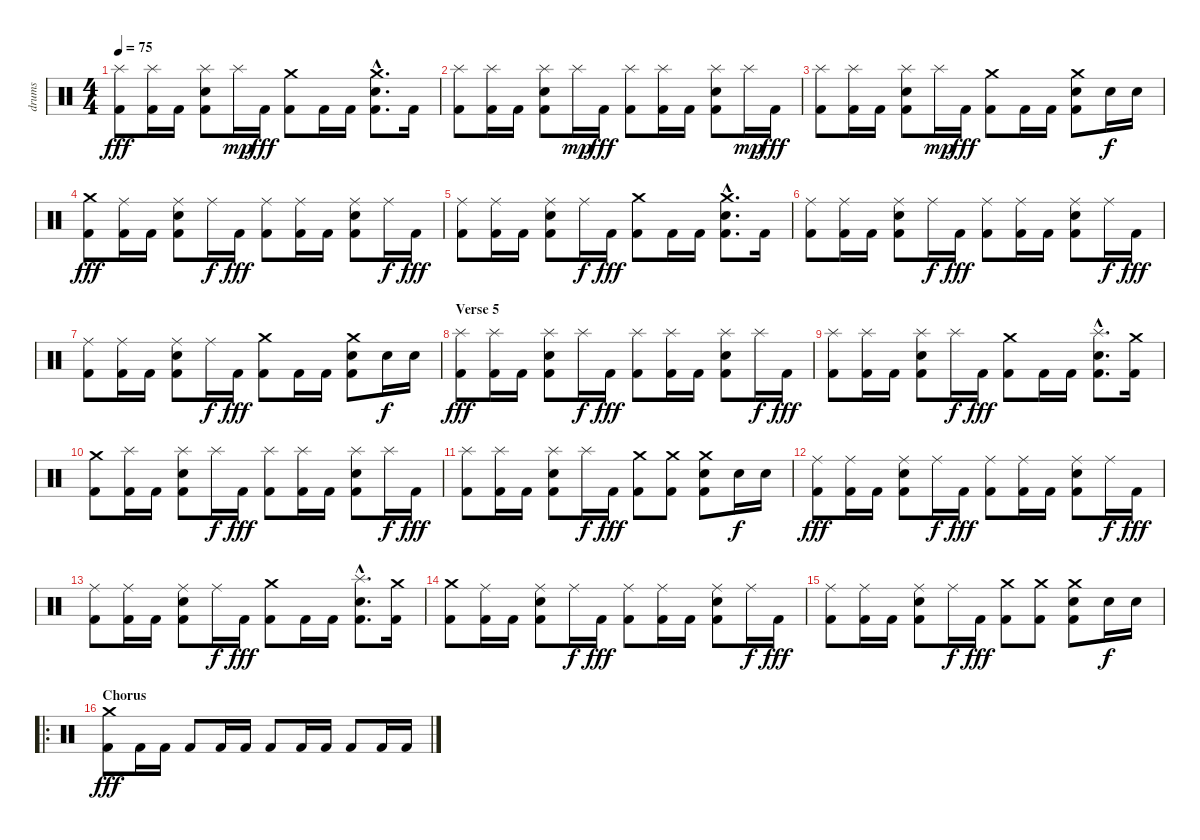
\track ("drums" "drums") {instrument percussion}
\staff {score}
\articulation defaults
\ts (4 4)
\tempo 75
\clef neutral
\ks c
("Splash (hit)" "Kick (hit) 2").8{dy fff} ("Splash (hit)" "Kick (hit) 2").16 "Kick (hit) 2".16 ("Splash (hit)" "Electric Snare (hit)" "Kick (hit) 2").8 "Splash (hit)".16{dy mp} "Kick (hit) 2".16{dy fff} ("Crash medium (hit)" "Kick (hit) 2").8 "Kick (hit) 2".16 "Kick (hit) 2".16 ("Crash medium (hit)"{hac} "Electric Snare (hit)"{hac} "Kick (hit) 2"{hac}).8{d} "Kick (hit) 2".16 |
("Splash (hit)" "Kick (hit) 2").8 ("Splash (hit)" "Kick (hit) 2").16 "Kick (hit) 2".16 ("Splash (hit)" "Electric Snare (hit)" "Kick (hit) 2").8 "Splash (hit)".16{dy mp} "Kick (hit) 2".16{dy fff} ("Splash (hit)" "Kick (hit) 2").8 ("Splash (hit)" "Kick (hit) 2").16 "Kick (hit) 2".16 ("Splash (hit)" "Electric Snare (hit)" "Kick (hit) 2").8 "Splash (hit)".16{dy mp} "Kick (hit) 2".16{dy fff} |
("Splash (hit)" "Kick (hit) 2").8 ("Splash (hit)" "Kick (hit) 2").16 "Kick (hit) 2".16 ("Splash (hit)" "Electric Snare (hit)" "Kick (hit) 2").8 "Splash (hit)".16{dy mp} "Kick (hit) 2".16{dy fff} ("Crash medium (hit)" "Kick (hit) 2").8 "Kick (hit) 2".16 "Kick (hit) 2".16 ("Crash medium (hit)" "Electric Snare (hit)" "Kick (hit) 2").8 "Electric Snare (hit)".16{dy f} "Electric Snare (hit)".16 |
("Crash medium (hit)" "Kick (hit) 2").8{dy fff} ("Ride (middle)" "Kick (hit) 2").16 "Kick (hit) 2".16 ("Ride (middle)" "Electric Snare (hit)" "Kick (hit) 2").8 "Ride (middle)".16{dy f} "Kick (hit) 2".16{dy fff} ("Ride (middle)" "Kick (hit) 2").8 ("Ride (middle)" "Kick (hit) 2").16 "Kick (hit) 2".16 ("Ride (middle)" "Electric Snare (hit)" "Kick (hit) 2").8 "Ride (middle)".16{dy f} "Kick (hit) 2".16{dy fff} |
("Ride (middle)" "Kick (hit) 2").8 ("Ride (middle)" "Kick (hit) 2").16 "Kick (hit) 2".16 ("Ride (middle)" "Electric Snare (hit)" "Kick (hit) 2").8 "Ride (middle)".16{dy f} "Kick (hit) 2".16{dy fff} ("Crash medium (hit)" "Kick (hit) 2").8 "Kick (hit) 2".16 "Kick (hit) 2".16 ("Crash medium (hit)"{hac} "Electric Snare (hit)"{hac} "Kick (hit) 2"{hac}).8{d} "Kick (hit) 2".16 |
("Ride (middle)" "Kick (hit) 2").8 ("Ride (middle)" "Kick (hit) 2").16 "Kick (hit) 2".16 ("Ride (middle)" "Electric Snare (hit)" "Kick (hit) 2").8 "Ride (middle)".16{dy f} "Kick (hit) 2".16{dy fff} ("Ride (middle)" "Kick (hit) 2").8 ("Ride (middle)" "Kick (hit) 2").16 "Kick (hit) 2".16 ("Ride (middle)" "Electric Snare (hit)" "Kick (hit) 2").8 "Ride (middle)".16{dy f} "Kick (hit) 2".16{dy fff} |
("Ride (middle)" "Kick (hit) 2").8 ("Ride (middle)" "Kick (hit) 2").16 "Kick (hit) 2".16 ("Ride (middle)" "Electric Snare (hit)" "Kick (hit) 2").8 "Ride (middle)".16{dy f} "Kick (hit) 2".16{dy fff} ("Crash medium (hit)" "Kick (hit) 2").8 "Kick (hit) 2".16 "Kick (hit) 2".16 ("Crash medium (hit)" "Electric Snare (hit)" "Kick (hit) 2").8 "Electric Snare (hit)".16{dy f} "Electric Snare (hit)".16 |
\section ("" "Verse 5")
("Splash (hit)" "Kick (hit) 2").8{dy fff} ("Splash (hit)" "Kick (hit) 2").16 "Kick (hit) 2".16 ("Splash (hit)" "Electric Snare (hit)" "Kick (hit) 2").8 "Splash (hit)".16{dy f} "Kick (hit) 2".16{dy fff} ("Splash (hit)" "Kick (hit) 2").8 ("Splash (hit)" "Kick (hit) 2").16 "Kick (hit) 2".16 ("Splash (hit)" "Electric Snare (hit)" "Kick (hit) 2").8 "Splash (hit)".16{dy f} "Kick (hit) 2".16{dy fff} |
("Splash (hit)" "Kick (hit) 2").8 ("Splash (hit)" "Kick (hit) 2").16 "Kick (hit) 2".16 ("Splash (hit)" "Electric Snare (hit)" "Kick (hit) 2").8 "Splash (hit)".16{dy f} "Kick (hit) 2".16{dy fff} ("Crash medium (hit)" "Kick (hit) 2").8 "Kick (hit) 2".16 "Kick (hit) 2".16 ("Splash (hit)"{hac} "Electric Snare (hit)"{hac} "Kick (hit) 2"{hac}).8{d} ("Crash medium (hit)" "Kick (hit) 2").16 |
("Crash medium (hit)" "Kick (hit) 2").8 ("Splash (hit)" "Kick (hit) 2").16 "Kick (hit) 2".16 ("Splash (hit)" "Electric Snare (hit)" "Kick (hit) 2").8 "Splash (hit)".16{dy f} "Kick (hit) 2".16{dy fff} ("Splash (hit)" "Kick (hit) 2").8 ("Splash (hit)" "Kick (hit) 2").16 "Kick (hit) 2".16 ("Splash (hit)" "Electric Snare (hit)" "Kick (hit) 2").8 "Splash (hit)".16{dy f} "Kick (hit) 2".16{dy fff} |
("Splash (hit)" "Kick (hit) 2").8 ("Splash (hit)" "Kick (hit) 2").16 "Kick (hit) 2".16 ("Splash (hit)" "Electric Snare (hit)" "Kick (hit) 2").8 "Splash (hit)".16{dy f} "Kick (hit) 2".16{dy fff} ("Crash medium (hit)" "Kick (hit) 2").8 ("Crash medium (hit)" "Kick (hit) 2").8 ("Crash medium (hit)" "Electric Snare (hit)" "Kick (hit) 2").8 "Electric Snare (hit)".16{dy f} "Electric Snare (hit)".16 |
("Ride (middle)" "Kick (hit) 2").8{dy fff} ("Ride (middle)" "Kick (hit) 2").16 "Kick (hit) 2".16 ("Ride (middle)" "Electric Snare (hit)" "Kick (hit) 2").8 "Ride (middle)".16{dy f} "Kick (hit) 2".16{dy fff} ("Ride (middle)" "Kick (hit) 2").8 ("Ride (middle)" "Kick (hit) 2").16 "Kick (hit) 2".16 ("Ride (middle)" "Electric Snare (hit)" "Kick (hit) 2").8 "Ride (middle)".16{dy f} "Kick (hit) 2".16{dy fff} |
("Ride (middle)" "Kick (hit) 2").8 ("Ride (middle)" "Kick (hit) 2").16 "Kick (hit) 2".16 ("Ride (middle)" "Electric Snare (hit)" "Kick (hit) 2").8 "Ride (middle)".16{dy f} "Kick (hit) 2".16{dy fff} ("Crash medium (hit)" "Kick (hit) 2").8 "Kick (hit) 2".16 "Kick (hit) 2".16 ("Splash (hit)"{hac} "Electric Snare (hit)"{hac} "Kick (hit) 2"{hac}).8{d} ("Crash medium (hit)" "Kick (hit) 2").16 |
("Crash medium (hit)" "Kick (hit) 2").8 ("Ride (middle)" "Kick (hit) 2").16 "Kick (hit) 2".16 ("Ride (middle)" "Electric Snare (hit)" "Kick (hit) 2").8 "Ride (middle)".16{dy f} "Kick (hit) 2".16{dy fff} ("Ride (middle)" "Kick (hit) 2").8 ("Ride (middle)" "Kick (hit) 2").16 "Kick (hit) 2".16 ("Ride (middle)" "Electric Snare (hit)" "Kick (hit) 2").8 "Ride (middle)".16{dy f} "Kick (hit) 2".16{dy fff} |
("Ride (middle)" "Kick (hit) 2").8 ("Ride (middle)" "Kick (hit) 2").16 "Kick (hit) 2".16 ("Ride (middle)" "Electric Snare (hit)" "Kick (hit) 2").8 "Ride (middle)".16{dy f} "Kick (hit) 2".16{dy fff} ("Crash medium (hit)" "Kick (hit) 2").8 ("Crash medium (hit)" "Kick (hit) 2").8 ("Crash medium (hit)" "Electric Snare (hit)" "Kick (hit) 2").8 "Electric Snare (hit)".16{dy f} "Electric Snare (hit)".16 |
\ro
\section ("" "Chorus")
("Crash medium (hit)" "Kick (hit) 2").8{dy fff} "Kick (hit) 2".16 "Kick (hit) 2".16 "Kick (hit) 2".8 "Kick (hit) 2".16 "Kick (hit) 2".16 "Kick (hit) 2".8 "Kick (hit) 2".16 "Kick (hit) 2".16 "Kick (hit) 2".8 "Kick (hit) 2".16 "Kick (hit) 2".16
